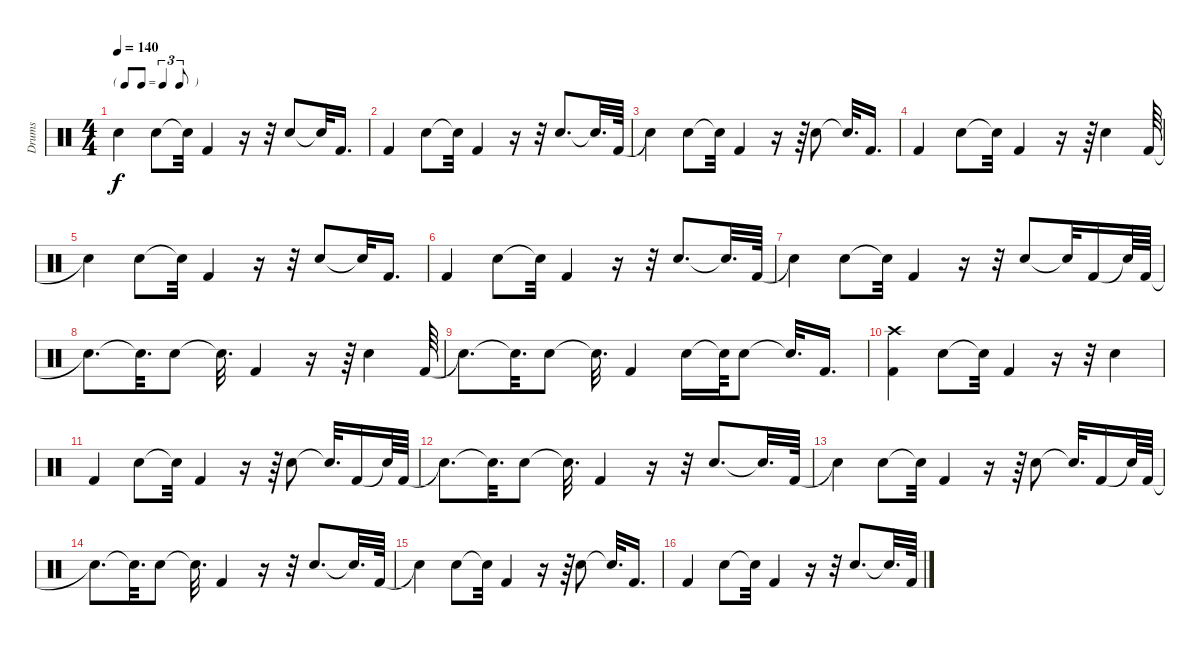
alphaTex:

\track ("Drums" "Drums") {instrument percussion}
\staff {score}
\articulation defaults
\ts (4 4)
\tf triplet8th
\tempo 140
\clef neutral
\ks c "Snare (hit)"{t}.4{dy f} "Snare (hit) 2".8 "Snare (hit)"{t}.32 "Kick (hit) 2".4
r.16 r.32 "Snare (hit) 2".8 "Snare (hit)"{t}.32 "Kick (hit) 2".16{d} |
"Kick (hit) 2".4 "Snare (hit) 2".8 "Snare (hit)"{t}.32 "Kick (hit) 2".4 r.16 r.32 "Snare (hit) 2".8{d} "Snare (hit)"{t}.32{d} "Kick (hit) 2".64 |
"Snare (hit)"{t}.4 "Snare (hit) 2".8 "Snare (hit)"{t}.32 "Kick (hit) 2".4 r.16 r.64 "Snare (hit) 2".8 "Snare (hit)"{t}.32{d} "Kick (hit) 2".16{d} |
"Kick (hit) 2".4 "Snare (hit) 2".8 "Snare (hit)"{t}.32 "Kick (hit) 2".4 r.16 r.64 "Snare (hit) 2".4 "Kick (hit) 2".64 |
"Snare (hit)"{t}.4 "Snare (hit) 2".8 "Snare (hit)"{t}.32 "Kick (hit) 2".4 r.16 r.32 "Snare (hit) 2".8 "Snare (hit)"{t}.32 "Kick (hit) 2".16{d} |
"Kick (hit) 2".4 "Snare (hit) 2".8 "Snare (hit)"{t}.32 "Kick (hit) 2".4 r.16 r.32 "Snare (hit) 2".8{d} "Snare (hit)"{t}.32{d} "Kick (hit) 2".64 |
"Snare (hit)"{t}.4 "Snare (hit) 2".8 "Snare (hit)"{t}.32 "Kick (hit) 2".4 r.16 r.32 "Snare (hit) 2".8 "Snare (hit)"{t}.32 "Kick (hit) 2".16 "Snare (hit)"{t}.64 "Kick (hit) 2".64 |
"Snare (hit)"{t}.8{d} "Snare (hit)"{t}.32{d} "Snare (hit) 2".8 "Snare (hit)"{t}.32{d} "Kick (hit) 2".4 r.16 r.64 "Snare (hit) 2".4 "Kick (hit) 2".64 |
"Snare (hit)"{t}.8{d} "Snare (hit)"{t}.32{d} "Snare (hit) 2".8 "Snare (hit)"{t}.32{d} "Kick (hit) 2".4 "Snare (hit) 2".16 "Snare (hit)"{t}.64 "Snare (hit) 2".8 "Snare (hit)"{t}.32{d} "Kick (hit) 2".16{d} |
("Kick (hit) 2" "Crash high (hit)").4 "Snare (hit) 2".8 "Snare (hit)"{t}.32 "Kick (hit) 2".4 r.16 r.32 "Snare (hit) 2".4 |
"Kick (hit) 2".4 "Snare (hit) 2".8 "Snare (hit)"{t}.32 "Kick (hit) 2".4 r.16 r.64 "Snare (hit) 2".8 "Snare (hit)"{t}.32{d} "Kick (hit) 2".16 "Snare (hit)"{t}.64 "Kick (hit) 2".64 |
"Snare (hit)"{t}.8{d} "Snare (hit)"{t}.32{d} "Snare (hit) 2".8 "Snare (hit)"{t}.32{d} "Kick (hit) 2".4 r.16 r.32 "Snare (hit) 2".8{d} "Snare (hit)"{t}.32{d} "Kick (hit) 2".64 |
"Snare (hit)"{t}.4 "Snare (hit) 2".8 "Snare (hit)"{t}.32 "Kick (hit) 2".4 r.16 r.64 "Snare (hit) 2".8 "Snare (hit)"{t}.32{d} "Kick (hit) 2".16 "Snare (hit)"{t}.64 "Kick (hit) 2".64 |
"Snare (hit)"{t}.8{d} "Snare (hit)"{t}.32{d} "Snare (hit) 2".8 "Snare (hit)"{t}.32{d} "Kick (hit) 2".4 r.16 r.32 "Snare (hit) 2".8{d} "Snare (hit)"{t}.32{d} "Kick (hit) 2".64 |
"Snare (hit)"{t}.4 "Snare (hit) 2".8 "Snare (hit)"{t}.32 "Kick (hit) 2".4 r.16 r.64 "Snare (hit) 2".8 "Snare (hit)"{t}.32{d} "Kick (hit) 2".16{d} |
"Kick (hit) 2".4 "Snare (hit) 2".8 "Snare (hit)"{t}.32 "Kick (hit) 2".4 r.16 r.32 "Snare (hit) 2".8{d} "Snare (hit)"{t}.32{d} "Kick (hit) 2".64
